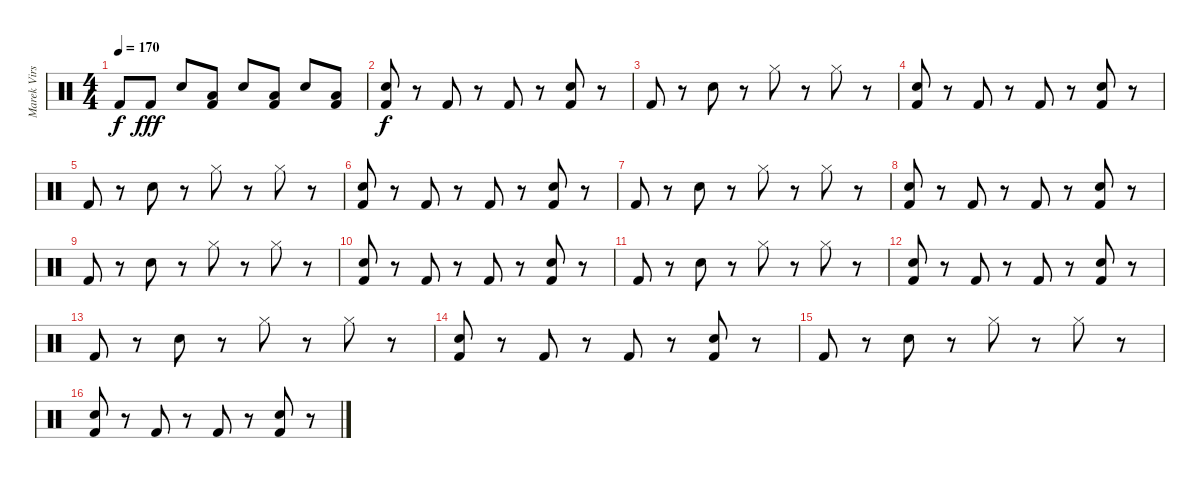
\track ("Marek Virsik" "Marek Virs") {instrument percussion}
\staff {score}
\articulation defaults
\ts (4 4)
\tempo 170
\clef neutral
\ks c "Kick (hit) 2".8{dy f} "Kick (hit) 2".8{dy fff} "Electric Snare (hit)".8
("Low Floor Tom (hit)" "Kick (hit) 2").8 "Electric Snare (hit)".8 ("Low Floor Tom (hit)" "Kick (hit) 2").8 "Electric Snare (hit)".8 ("Low Floor Tom (hit)" "Kick (hit) 2").8 |
("Kick (hit) 2" "Electric Snare (hit)").8{dy f} r.8 "Kick (hit) 2".8 r.8 "Kick (hit) 2".8 r.8 ("Kick (hit) 2" "Electric Snare (hit)").8 r.8 |
"Kick (hit) 2".8 r.8 "Electric Snare (hit)".8 r.8 "Hi-Hat (closed)".8 r.8 "Hi-Hat (closed)".8 r.8 |
("Kick (hit) 2" "Electric Snare (hit)").8 r.8 "Kick (hit) 2".8 r.8 "Kick (hit) 2".8 r.8 ("Kick (hit) 2" "Electric Snare (hit)").8 r.8 |
"Kick (hit) 2".8 r.8 "Electric Snare (hit)".8 r.8 "Hi-Hat (closed)".8 r.8 "Hi-Hat (closed)".8 r.8 |
("Kick (hit) 2" "Electric Snare (hit)").8 r.8 "Kick (hit) 2".8 r.8 "Kick (hit) 2".8 r.8 ("Kick (hit) 2" "Electric Snare (hit)").8 r.8 |
"Kick (hit) 2".8 r.8 "Electric Snare (hit)".8 r.8 "Hi-Hat (closed)".8 r.8 "Hi-Hat (closed)".8 r.8 |
("Kick (hit) 2" "Electric Snare (hit)").8 r.8 "Kick (hit) 2".8 r.8 "Kick (hit) 2".8 r.8 ("Kick (hit) 2" "Electric Snare (hit)").8 r.8 |
"Kick (hit) 2".8 r.8 "Electric Snare (hit)".8 r.8 "Hi-Hat (closed)".8 r.8 "Hi-Hat (closed)".8 r.8 |
("Kick (hit) 2" "Electric Snare (hit)").8 r.8 "Kick (hit) 2".8 r.8 "Kick (hit) 2".8 r.8 ("Kick (hit) 2" "Electric Snare (hit)").8 r.8 |
"Kick (hit) 2".8 r.8 "Electric Snare (hit)".8 r.8 "Hi-Hat (closed)".8 r.8 "Hi-Hat (closed)".8 r.8 |
("Kick (hit) 2" "Electric Snare (hit)").8 r.8 "Kick (hit) 2".8 r.8 "Kick (hit) 2".8 r.8 ("Kick (hit) 2" "Electric Snare (hit)").8 r.8 |
"Kick (hit) 2".8 r.8 "Electric Snare (hit)".8 r.8 "Hi-Hat (closed)".8 r.8 "Hi-Hat (closed)".8 r.8 |
("Kick (hit) 2" "Electric Snare (hit)").8 r.8 "Kick (hit) 2".8 r.8 "Kick (hit) 2".8 r.8 ("Kick (hit) 2" "Electric Snare (hit)").8 r.8 |
"Kick (hit) 2".8 r.8 "Electric Snare (hit)".8 r.8 "Hi-Hat (closed)".8 r.8 "Hi-Hat (closed)".8 r.8 |
("Kick (hit) 2" "Electric Snare (hit)").8 r.8 "Kick (hit) 2".8 r.8 "Kick (hit) 2".8 r.8 ("Kick (hit) 2" "Electric Snare (hit)").8 r.8
